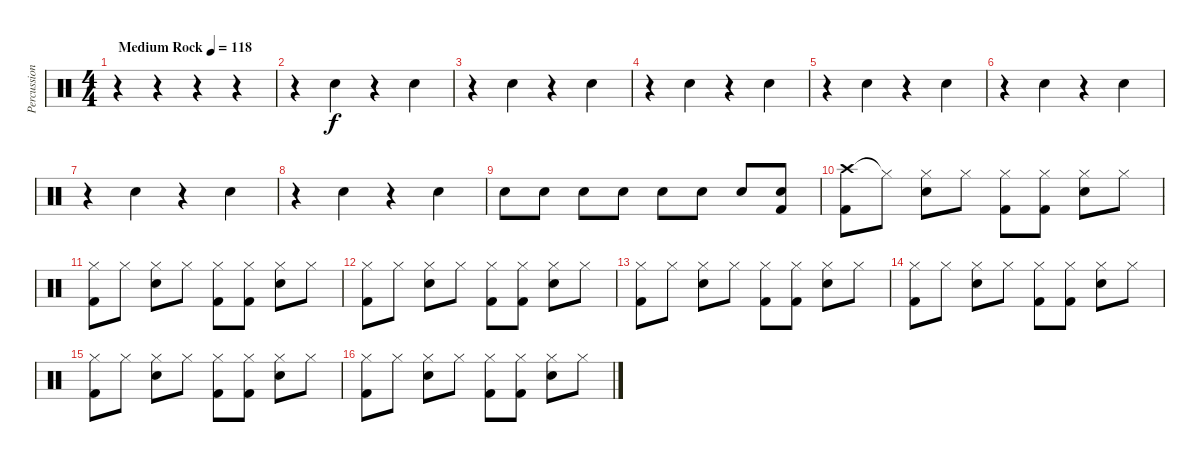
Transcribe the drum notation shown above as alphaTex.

\track ("Percussion" "Percussion") {instrument percussion}
\staff {score}
\articulation defaults
\ts (4 4)
\tempo (118 "Medium Rock")
\clef neutral
\ks c
r.4{dy f} r.4 r.4 r.4 |
r.4 "Snare (hit) 2".4 r.4 "Snare (hit) 2".4 |
r.4 "Snare (hit) 2".4 r.4 "Snare (hit) 2".4 |
r.4 "Snare (hit) 2".4 r.4 "Snare (hit) 2".4 |
r.4 "Snare (hit) 2".4 r.4 "Snare (hit) 2".4 |
r.4 "Snare (hit) 2".4 r.4 "Snare (hit) 2".4 |
r.4 "Snare (hit) 2".4 r.4 "Snare (hit) 2".4 |
r.4 "Snare (hit) 2".4 r.4 "Snare (hit) 2".4 |
"Snare (hit) 2".8 "Snare (hit) 2".8 "Snare (hit) 2".8 "Snare (hit) 2".8 "Snare (hit) 2".8 "Snare (hit) 2".8 "Snare (hit) 2".8 ("Snare (hit) 2" "Kick (hit) 2").8 |
("Crash high (hit)" "Kick (hit) 2").8 "Hi-Hat (closed)"{t}.8 ("Hi-Hat (closed)" "Snare (hit) 2").8 "Hi-Hat (closed)".8 ("Hi-Hat (closed)" "Kick (hit) 2").8 ("Hi-Hat (closed)" "Kick (hit) 2").8 ("Hi-Hat (closed)" "Snare (hit) 2").8 "Hi-Hat (closed)".8 |
("Hi-Hat (closed)" "Kick (hit) 2").8 "Hi-Hat (closed)".8 ("Hi-Hat (closed)" "Snare (hit) 2").8 "Hi-Hat (closed)".8 ("Hi-Hat (closed)" "Kick (hit) 2").8 ("Hi-Hat (closed)" "Kick (hit) 2").8 ("Hi-Hat (closed)" "Snare (hit) 2").8 "Hi-Hat (closed)".8 |
("Hi-Hat (closed)" "Kick (hit) 2").8 "Hi-Hat (closed)".8 ("Hi-Hat (closed)" "Snare (hit) 2").8 "Hi-Hat (closed)".8 ("Hi-Hat (closed)" "Kick (hit) 2").8 ("Hi-Hat (closed)" "Kick (hit) 2").8 ("Hi-Hat (closed)" "Snare (hit) 2").8 "Hi-Hat (closed)".8 |
("Hi-Hat (closed)" "Kick (hit) 2").8 "Hi-Hat (closed)".8 ("Hi-Hat (closed)" "Snare (hit) 2").8 "Hi-Hat (closed)".8 ("Hi-Hat (closed)" "Kick (hit) 2").8 ("Hi-Hat (closed)" "Kick (hit) 2").8 ("Hi-Hat (closed)" "Snare (hit) 2").8 "Hi-Hat (closed)".8 |
("Hi-Hat (closed)" "Kick (hit) 2").8 "Hi-Hat (closed)".8 ("Hi-Hat (closed)" "Snare (hit) 2").8 "Hi-Hat (closed)".8 ("Hi-Hat (closed)" "Kick (hit) 2").8 ("Hi-Hat (closed)" "Kick (hit) 2").8 ("Hi-Hat (closed)" "Snare (hit) 2").8 "Hi-Hat (closed)".8 |
("Hi-Hat (closed)" "Kick (hit) 2").8 "Hi-Hat (closed)".8 ("Hi-Hat (closed)" "Snare (hit) 2").8 "Hi-Hat (closed)".8 ("Hi-Hat (closed)" "Kick (hit) 2").8 ("Hi-Hat (closed)" "Kick (hit) 2").8 ("Hi-Hat (closed)" "Snare (hit) 2").8 "Hi-Hat (closed)".8 |
("Hi-Hat (closed)" "Kick (hit) 2").8 "Hi-Hat (closed)".8 ("Hi-Hat (closed)" "Snare (hit) 2").8 "Hi-Hat (closed)".8 ("Hi-Hat (closed)" "Kick (hit) 2").8 ("Hi-Hat (closed)" "Kick (hit) 2").8 ("Hi-Hat (closed)" "Snare (hit) 2").8 "Hi-Hat (closed)".8
